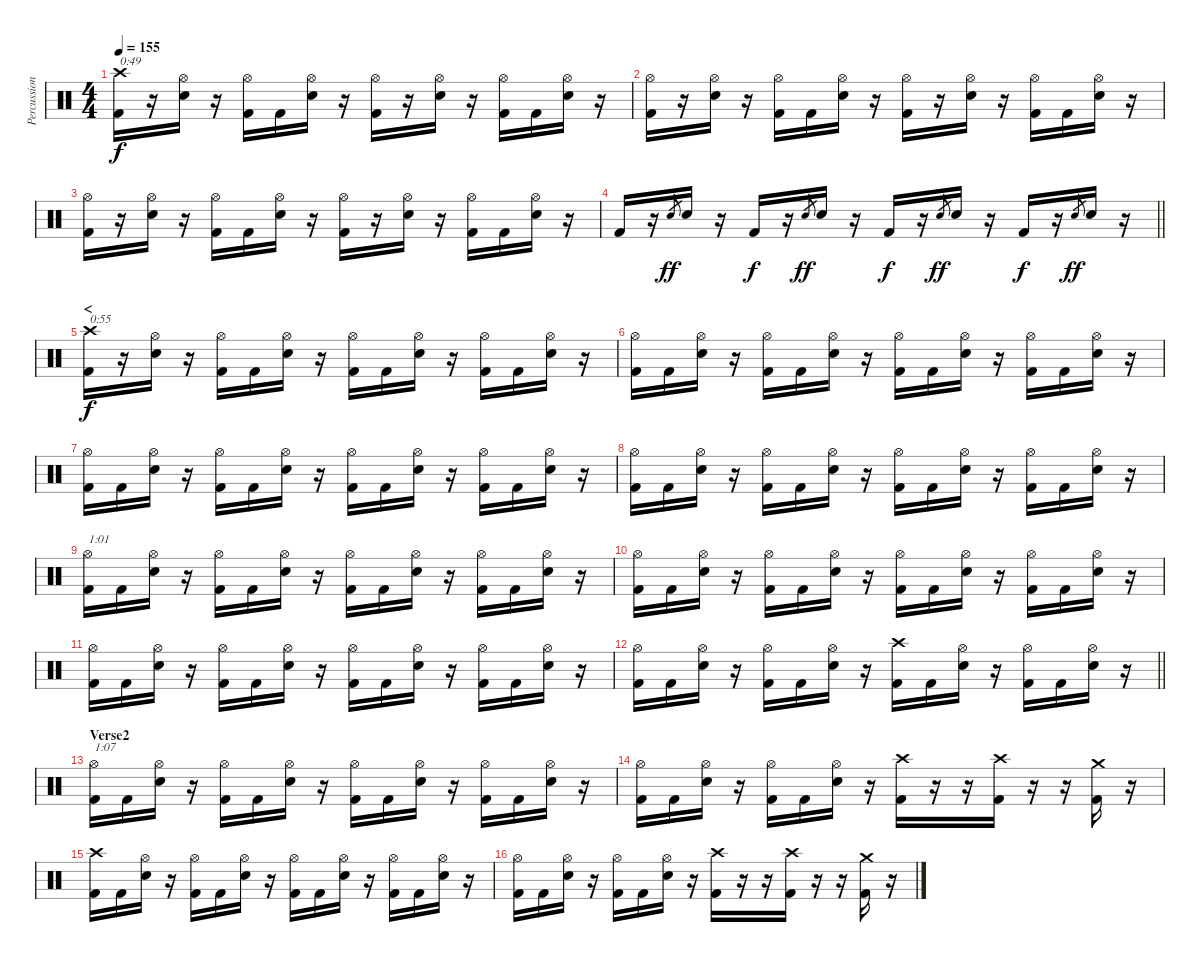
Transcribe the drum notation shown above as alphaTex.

\track ("Percussion" "Percussion") {instrument percussion}
\staff {score}
\articulation defaults
\ts (4 4)
\tempo 155
\clef neutral
\ks c
("Crash high (hit)" "Kick (hit) 2").16{txt "0:49" dy f} r.16 ("Hi-Hat (open)" "Snare (hit) 2").16 r.16 ("Hi-Hat (open)" "Kick (hit) 2").16 "Kick (hit) 2".16 ("Hi-Hat (open)" "Snare (hit) 2").16 r.16 ("Hi-Hat (open)" "Kick (hit) 2").16 r.16 ("Hi-Hat (open)" "Snare (hit) 2").16 r.16 ("Hi-Hat (open)" "Kick (hit) 2").16 "Kick (hit) 2".16 ("Hi-Hat (open)" "Snare (hit) 2").16 r.16 |
("Hi-Hat (open)" "Kick (hit) 2").16 r.16 ("Hi-Hat (open)" "Snare (hit) 2").16 r.16 ("Hi-Hat (open)" "Kick (hit) 2").16 "Kick (hit) 2".16 ("Hi-Hat (open)" "Snare (hit) 2").16 r.16 ("Hi-Hat (open)" "Kick (hit) 2").16 r.16 ("Hi-Hat (open)" "Snare (hit) 2").16 r.16 ("Hi-Hat (open)" "Kick (hit) 2").16 "Kick (hit) 2".16 ("Hi-Hat (open)" "Snare (hit) 2").16 r.16 |
("Hi-Hat (open)" "Kick (hit) 2").16 r.16 ("Hi-Hat (open)" "Snare (hit) 2").16 r.16 ("Hi-Hat (open)" "Kick (hit) 2").16 "Kick (hit) 2".16 ("Hi-Hat (open)" "Snare (hit) 2").16 r.16 ("Hi-Hat (open)" "Kick (hit) 2").16 r.16 ("Hi-Hat (open)" "Snare (hit) 2").16 r.16 ("Hi-Hat (open)" "Kick (hit) 2").16 "Kick (hit) 2".16 ("Hi-Hat (open)" "Snare (hit) 2").16 r.16 |
\barLineRight lightlight "Kick (hit) 2".16
r.16 "Snare (hit) 2".8{gr dy ff} "Snare (hit) 2".16 r.16 "Kick (hit) 2".16{dy f} r.16 "Snare (hit) 2".8{gr dy ff} "Snare (hit) 2".16 r.16 "Kick (hit) 2".16{dy f} r.16 "Snare (hit) 2".8{gr dy ff} "Snare (hit) 2".16 r.16 "Kick (hit) 2".16{dy f} r.16 "Snare (hit) 2".8{gr dy ff} "Snare (hit) 2".16 r.16 |
\section ("" "<")
("Crash high (hit)" "Kick (hit) 2").16{txt "0:55" dy f} r.16 ("Hi-Hat (open)" "Snare (hit) 2").16 r.16 ("Hi-Hat (open)" "Kick (hit) 2").16 "Kick (hit) 2".16 ("Hi-Hat (open)" "Snare (hit) 2").16 r.16 ("Hi-Hat (open)" "Kick (hit) 2").16 "Kick (hit) 2".16 ("Hi-Hat (open)" "Snare (hit) 2").16 r.16 ("Hi-Hat (open)" "Kick (hit) 2").16 "Kick (hit) 2".16 ("Hi-Hat (open)" "Snare (hit) 2").16 r.16 |
("Hi-Hat (open)" "Kick (hit) 2").16 "Kick (hit) 2".16 ("Hi-Hat (open)" "Snare (hit) 2").16 r.16 ("Hi-Hat (open)" "Kick (hit) 2").16 "Kick (hit) 2".16 ("Hi-Hat (open)" "Snare (hit) 2").16 r.16 ("Hi-Hat (open)" "Kick (hit) 2").16 "Kick (hit) 2".16 ("Hi-Hat (open)" "Snare (hit) 2").16 r.16 ("Hi-Hat (open)" "Kick (hit) 2").16 "Kick (hit) 2".16 ("Hi-Hat (open)" "Snare (hit) 2").16 r.16 |
("Hi-Hat (open)" "Kick (hit) 2").16 "Kick (hit) 2".16 ("Hi-Hat (open)" "Snare (hit) 2").16 r.16 ("Hi-Hat (open)" "Kick (hit) 2").16 "Kick (hit) 2".16 ("Hi-Hat (open)" "Snare (hit) 2").16 r.16 ("Hi-Hat (open)" "Kick (hit) 2").16 "Kick (hit) 2".16 ("Hi-Hat (open)" "Snare (hit) 2").16 r.16 ("Hi-Hat (open)" "Kick (hit) 2").16 "Kick (hit) 2".16 ("Hi-Hat (open)" "Snare (hit) 2").16 r.16 |
("Hi-Hat (open)" "Kick (hit) 2").16 "Kick (hit) 2".16 ("Hi-Hat (open)" "Snare (hit) 2").16 r.16 ("Hi-Hat (open)" "Kick (hit) 2").16 "Kick (hit) 2".16 ("Hi-Hat (open)" "Snare (hit) 2").16 r.16 ("Hi-Hat (open)" "Kick (hit) 2").16 "Kick (hit) 2".16 ("Hi-Hat (open)" "Snare (hit) 2").16 r.16 ("Hi-Hat (open)" "Kick (hit) 2").16 "Kick (hit) 2".16 ("Hi-Hat (open)" "Snare (hit) 2").16 r.16 |
("Hi-Hat (open)" "Kick (hit) 2").16{txt "1:01"} "Kick (hit) 2".16 ("Hi-Hat (open)" "Snare (hit) 2").16 r.16 ("Hi-Hat (open)" "Kick (hit) 2").16 "Kick (hit) 2".16 ("Hi-Hat (open)" "Snare (hit) 2").16 r.16 ("Hi-Hat (open)" "Kick (hit) 2").16 "Kick (hit) 2".16 ("Hi-Hat (open)" "Snare (hit) 2").16 r.16 ("Hi-Hat (open)" "Kick (hit) 2").16 "Kick (hit) 2".16 ("Hi-Hat (open)" "Snare (hit) 2").16 r.16 |
("Hi-Hat (open)" "Kick (hit) 2").16 "Kick (hit) 2".16 ("Hi-Hat (open)" "Snare (hit) 2").16 r.16 ("Hi-Hat (open)" "Kick (hit) 2").16 "Kick (hit) 2".16 ("Hi-Hat (open)" "Snare (hit) 2").16 r.16 ("Hi-Hat (open)" "Kick (hit) 2").16 "Kick (hit) 2".16 ("Hi-Hat (open)" "Snare (hit) 2").16 r.16 ("Hi-Hat (open)" "Kick (hit) 2").16 "Kick (hit) 2".16 ("Hi-Hat (open)" "Snare (hit) 2").16 r.16 |
("Hi-Hat (open)" "Kick (hit) 2").16 "Kick (hit) 2".16 ("Hi-Hat (open)" "Snare (hit) 2").16 r.16 ("Hi-Hat (open)" "Kick (hit) 2").16 "Kick (hit) 2".16 ("Hi-Hat (open)" "Snare (hit) 2").16 r.16 ("Hi-Hat (open)" "Kick (hit) 2").16 "Kick (hit) 2".16 ("Hi-Hat (open)" "Snare (hit) 2").16 r.16 ("Hi-Hat (open)" "Kick (hit) 2").16 "Kick (hit) 2".16 ("Hi-Hat (open)" "Snare (hit) 2").16 r.16 |
\barLineRight lightlight
("Hi-Hat (open)" "Kick (hit) 2").16 "Kick (hit) 2".16 ("Hi-Hat (open)" "Snare (hit) 2").16 r.16 ("Hi-Hat (open)" "Kick (hit) 2").16 "Kick (hit) 2".16 ("Hi-Hat (open)" "Snare (hit) 2").16 r.16 ("Crash high (hit)" "Kick (hit) 2").16 "Kick (hit) 2".16 ("Hi-Hat (open)" "Snare (hit) 2").16 r.16 ("Hi-Hat (open)" "Kick (hit) 2").16 "Kick (hit) 2".16 ("Hi-Hat (open)" "Snare (hit) 2").16 r.16 |
\section ("" "Verse2")
("Hi-Hat (open)" "Kick (hit) 2").16{txt "1:07"} "Kick (hit) 2".16 ("Hi-Hat (open)" "Snare (hit) 2").16 r.16 ("Hi-Hat (open)" "Kick (hit) 2").16 "Kick (hit) 2".16 ("Hi-Hat (open)" "Snare (hit) 2").16 r.16 ("Hi-Hat (open)" "Kick (hit) 2").16 "Kick (hit) 2".16 ("Hi-Hat (open)" "Snare (hit) 2").16 r.16 ("Hi-Hat (open)" "Kick (hit) 2").16 "Kick (hit) 2".16 ("Hi-Hat (open)" "Snare (hit) 2").16 r.16 |
("Hi-Hat (open)" "Kick (hit) 2").16 "Kick (hit) 2".16 ("Hi-Hat (open)" "Snare (hit) 2").16 r.16 ("Hi-Hat (open)" "Kick (hit) 2").16 "Kick (hit) 2".16 ("Hi-Hat (open)" "Snare (hit) 2").16 r.16 ("Crash high (hit)" "Kick (hit) 2").16 r.16 r.16 ("Crash high (hit)" "Kick (hit) 2").16 r.16 r.16 ("Crash medium (hit)" "Kick (hit) 2").16 r.16 |
("Crash high (hit)" "Kick (hit) 2").16 "Kick (hit) 2".16 ("Hi-Hat (open)" "Snare (hit) 2").16 r.16 ("Hi-Hat (open)" "Kick (hit) 2").16 "Kick (hit) 2".16 ("Hi-Hat (open)" "Snare (hit) 2").16 r.16 ("Hi-Hat (open)" "Kick (hit) 2").16 "Kick (hit) 2".16 ("Hi-Hat (open)" "Snare (hit) 2").16 r.16 ("Hi-Hat (open)" "Kick (hit) 2").16 "Kick (hit) 2".16 ("Hi-Hat (open)" "Snare (hit) 2").16 r.16 |
("Hi-Hat (open)" "Kick (hit) 2").16 "Kick (hit) 2".16 ("Hi-Hat (open)" "Snare (hit) 2").16 r.16 ("Hi-Hat (open)" "Kick (hit) 2").16 "Kick (hit) 2".16 ("Hi-Hat (open)" "Snare (hit) 2").16 r.16 ("Crash high (hit)" "Kick (hit) 2").16 r.16 r.16 ("Crash high (hit)" "Kick (hit) 2").16 r.16 r.16 ("Crash medium (hit)" "Kick (hit) 2").16 r.16
